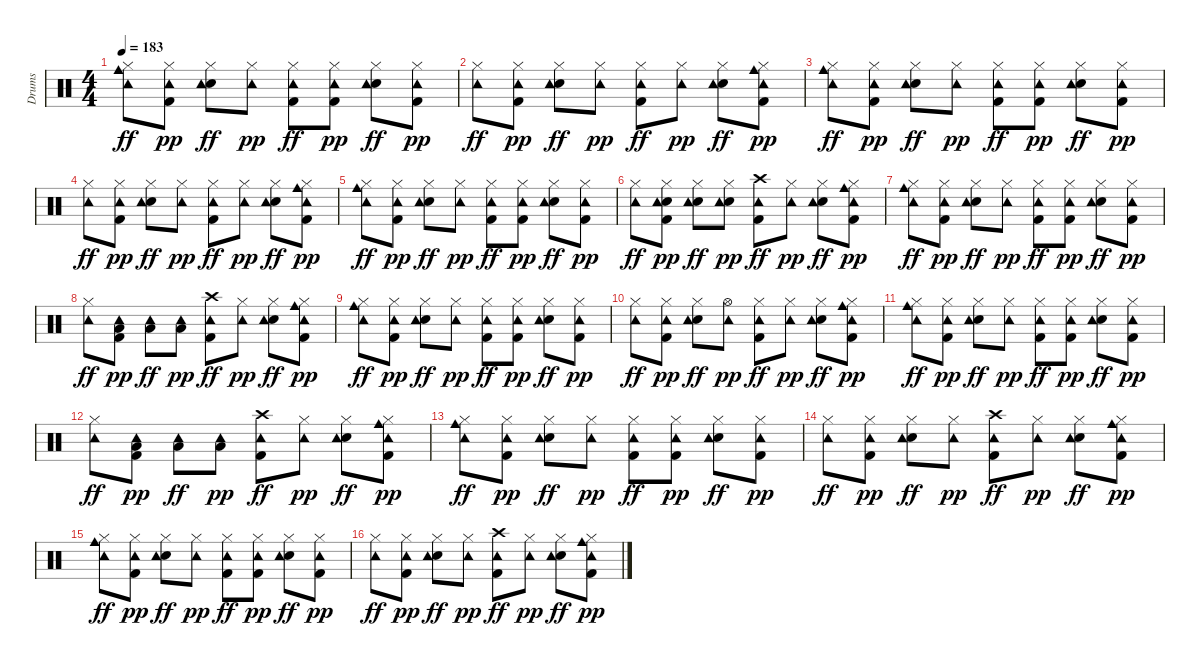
\track ("Drums" "Drums") {instrument percussion}
\staff {score}
\articulation defaults
\ts (4 4)
\tempo 183
\clef neutral
\ks c
("Cowbell medium (hit)" "Hi-Hat (closed)" "Tambourine (hit)").8{dy ff} ("Kick (hit) 2" "Hi-Hat (closed)" "Tambourine (hit)").8{dy pp} ("Snare (hit) 2" "Hi-Hat (closed)" "Tambourine (hit)").8{dy ff} ("Hi-Hat (closed)" "Tambourine (hit)").8{dy pp} ("Kick (hit) 2" "Hi-Hat (closed)" "Tambourine (hit)").8{dy ff} ("Kick (hit) 2" "Hi-Hat (closed)" "Tambourine (hit)").8{dy pp} ("Snare (hit) 2" "Hi-Hat (closed)" "Tambourine (hit)").8{dy ff} ("Kick (hit) 2" "Hi-Hat (closed)" "Tambourine (hit)").8{dy pp} |
("Hi-Hat (closed)" "Tambourine (hit)").8{dy ff} ("Kick (hit) 2" "Hi-Hat (closed)" "Tambourine (hit)").8{dy pp} ("Snare (hit) 2" "Hi-Hat (closed)" "Tambourine (hit)").8{dy ff} ("Hi-Hat (closed)" "Tambourine (hit)").8{dy pp} ("Kick (hit) 2" "Hi-Hat (closed)" "Tambourine (hit)").8{dy ff} ("Hi-Hat (closed)" "Tambourine (hit)").8{dy pp} ("Snare (hit) 2" "Hi-Hat (closed)" "Tambourine (hit)").8{dy ff} ("Cowbell medium (hit)" "Kick (hit) 2" "Hi-Hat (closed)" "Tambourine (hit)").8{dy pp} |
("Cowbell medium (hit)" "Hi-Hat (closed)" "Tambourine (hit)").8{dy ff} ("Kick (hit) 2" "Hi-Hat (closed)" "Tambourine (hit)").8{dy pp} ("Snare (hit) 2" "Hi-Hat (closed)" "Tambourine (hit)").8{dy ff} ("Hi-Hat (closed)" "Tambourine (hit)").8{dy pp} ("Kick (hit) 2" "Hi-Hat (closed)" "Tambourine (hit)").8{dy ff} ("Kick (hit) 2" "Hi-Hat (closed)" "Tambourine (hit)").8{dy pp} ("Snare (hit) 2" "Hi-Hat (closed)" "Tambourine (hit)").8{dy ff} ("Kick (hit) 2" "Hi-Hat (closed)" "Tambourine (hit)").8{dy pp} |
("Hi-Hat (closed)" "Tambourine (hit)").8{dy ff} ("Kick (hit) 2" "Hi-Hat (closed)" "Tambourine (hit)").8{dy pp} ("Snare (hit) 2" "Hi-Hat (closed)" "Tambourine (hit)").8{dy ff} ("Hi-Hat (closed)" "Tambourine (hit)").8{dy pp} ("Kick (hit) 2" "Hi-Hat (closed)" "Tambourine (hit)").8{dy ff} ("Hi-Hat (closed)" "Tambourine (hit)").8{dy pp} ("Snare (hit) 2" "Hi-Hat (closed)" "Tambourine (hit)").8{dy ff} ("Cowbell medium (hit)" "Kick (hit) 2" "Hi-Hat (closed)" "Tambourine (hit)").8{dy pp} |
("Cowbell medium (hit)" "Hi-Hat (closed)" "Tambourine (hit)").8{dy ff} ("Kick (hit) 2" "Hi-Hat (closed)" "Tambourine (hit)").8{dy pp} ("Snare (hit) 2" "Hi-Hat (closed)" "Tambourine (hit)").8{dy ff} ("Hi-Hat (closed)" "Tambourine (hit)").8{dy pp} ("Kick (hit) 2" "Hi-Hat (closed)" "Tambourine (hit)").8{dy ff} ("Kick (hit) 2" "Hi-Hat (closed)" "Tambourine (hit)").8{dy pp} ("Snare (hit) 2" "Hi-Hat (closed)" "Tambourine (hit)").8{dy ff} ("Kick (hit) 2" "Hi-Hat (closed)" "Tambourine (hit)").8{dy pp} |
("Hi-Hat (closed)" "Tambourine (hit)").8{dy ff} ("Kick (hit) 2" "Snare (hit) 2" "Hi-Hat (closed)" "Tambourine (hit)").8{dy pp} ("Snare (hit) 2" "Hi-Hat (closed)" "Tambourine (hit)").8{dy ff} ("Snare (hit) 2" "Hi-Hat (closed)" "Tambourine (hit)").8{dy pp} ("Kick (hit) 2" "Crash high (hit)" "Tambourine (hit)").8{dy ff} ("Hi-Hat (closed)" "Tambourine (hit)").8{dy pp} ("Snare (hit) 2" "Hi-Hat (closed)" "Tambourine (hit)").8{dy ff} ("Cowbell medium (hit)" "Kick (hit) 2" "Hi-Hat (closed)" "Tambourine (hit)").8{dy pp} |
("Cowbell medium (hit)" "Hi-Hat (closed)" "Tambourine (hit)").8{dy ff} ("Kick (hit) 2" "Hi-Hat (closed)" "Tambourine (hit)").8{dy pp} ("Snare (hit) 2" "Hi-Hat (closed)" "Tambourine (hit)").8{dy ff} ("Hi-Hat (closed)" "Tambourine (hit)").8{dy pp} ("Kick (hit) 2" "Hi-Hat (closed)" "Tambourine (hit)").8{dy ff} ("Kick (hit) 2" "Hi-Hat (closed)" "Tambourine (hit)").8{dy pp} ("Snare (hit) 2" "Hi-Hat (closed)" "Tambourine (hit)").8{dy ff} ("Kick (hit) 2" "Hi-Hat (closed)" "Tambourine (hit)").8{dy pp} |
("Hi-Hat (closed)" "Tambourine (hit)").8{dy ff} ("Kick (hit) 2" "Low Tom (hit)" "Tambourine (hit)").8{dy pp} ("Low Floor Tom (hit)" "Tambourine (hit)").8{dy ff} ("Low Floor Tom (hit)" "Tambourine (hit)").8{dy pp} ("Kick (hit) 2" "Crash high (hit)" "Tambourine (hit)").8{dy ff} ("Hi-Hat (closed)" "Tambourine (hit)").8{dy pp} ("Snare (hit) 2" "Hi-Hat (closed)" "Tambourine (hit)").8{dy ff} ("Cowbell medium (hit)" "Kick (hit) 2" "Hi-Hat (closed)" "Tambourine (hit)").8{dy pp} |
("Cowbell medium (hit)" "Hi-Hat (closed)" "Tambourine (hit)").8{dy ff} ("Kick (hit) 2" "Hi-Hat (closed)" "Tambourine (hit)").8{dy pp} ("Snare (hit) 2" "Hi-Hat (closed)" "Tambourine (hit)").8{dy ff} ("Hi-Hat (closed)" "Tambourine (hit)").8{dy pp} ("Kick (hit) 2" "Hi-Hat (closed)" "Tambourine (hit)").8{dy ff} ("Kick (hit) 2" "Hi-Hat (closed)" "Tambourine (hit)").8{dy pp} ("Snare (hit) 2" "Hi-Hat (closed)" "Tambourine (hit)").8{dy ff} ("Kick (hit) 2" "Hi-Hat (closed)" "Tambourine (hit)").8{dy pp} |
("Hi-Hat (closed)" "Tambourine (hit)").8{dy ff} ("Kick (hit) 2" "Hi-Hat (closed)" "Tambourine (hit)").8{dy pp} ("Snare (hit) 2" "Hi-Hat (closed)" "Tambourine (hit)").8{dy ff} ("Hi-Hat (open)" "Tambourine (hit)").8{dy pp} ("Kick (hit) 2" "Hi-Hat (closed)" "Tambourine (hit)").8{dy ff} ("Hi-Hat (closed)" "Tambourine (hit)").8{dy pp} ("Snare (hit) 2" "Hi-Hat (closed)" "Tambourine (hit)").8{dy ff} ("Cowbell medium (hit)" "Kick (hit) 2" "Hi-Hat (closed)" "Tambourine (hit)").8{dy pp} |
("Cowbell medium (hit)" "Hi-Hat (closed)" "Tambourine (hit)").8{dy ff} ("Kick (hit) 2" "Hi-Hat (closed)" "Tambourine (hit)").8{dy pp} ("Snare (hit) 2" "Hi-Hat (closed)" "Tambourine (hit)").8{dy ff} ("Hi-Hat (closed)" "Tambourine (hit)").8{dy pp} ("Kick (hit) 2" "Hi-Hat (closed)" "Tambourine (hit)").8{dy ff} ("Kick (hit) 2" "Hi-Hat (closed)" "Tambourine (hit)").8{dy pp} ("Snare (hit) 2" "Hi-Hat (closed)" "Tambourine (hit)").8{dy ff} ("Kick (hit) 2" "Hi-Hat (closed)" "Tambourine (hit)").8{dy pp} |
("Hi-Hat (closed)" "Tambourine (hit)").8{dy ff} ("Kick (hit) 2" "Low Tom (hit)" "Tambourine (hit)").8{dy pp} ("Low Tom (hit)" "Tambourine (hit)").8{dy ff} ("Low Floor Tom (hit)" "Tambourine (hit)").8{dy pp} ("Kick (hit) 2" "Crash high (hit)" "Tambourine (hit)").8{dy ff} ("Hi-Hat (closed)" "Tambourine (hit)").8{dy pp} ("Snare (hit) 2" "Hi-Hat (closed)" "Tambourine (hit)").8{dy ff} ("Cowbell medium (hit)" "Kick (hit) 2" "Hi-Hat (closed)" "Tambourine (hit)").8{dy pp} |
("Cowbell medium (hit)" "Hi-Hat (closed)" "Tambourine (hit)").8{dy ff} ("Kick (hit) 2" "Hi-Hat (closed)" "Tambourine (hit)").8{dy pp} ("Snare (hit) 2" "Hi-Hat (closed)" "Tambourine (hit)").8{dy ff} ("Hi-Hat (closed)" "Tambourine (hit)").8{dy pp} ("Kick (hit) 2" "Hi-Hat (closed)" "Tambourine (hit)").8{dy ff} ("Kick (hit) 2" "Hi-Hat (closed)" "Tambourine (hit)").8{dy pp} ("Snare (hit) 2" "Hi-Hat (closed)" "Tambourine (hit)").8{dy ff} ("Kick (hit) 2" "Hi-Hat (closed)" "Tambourine (hit)").8{dy pp} |
("Hi-Hat (closed)" "Tambourine (hit)").8{dy ff} ("Kick (hit) 2" "Hi-Hat (closed)" "Tambourine (hit)").8{dy pp} ("Snare (hit) 2" "Hi-Hat (closed)" "Tambourine (hit)").8{dy ff} ("Hi-Hat (closed)" "Tambourine (hit)").8{dy pp} ("Kick (hit) 2" "Crash high (hit)" "Tambourine (hit)").8{dy ff} ("Hi-Hat (closed)" "Tambourine (hit)").8{dy pp} ("Snare (hit) 2" "Hi-Hat (closed)" "Tambourine (hit)").8{dy ff} ("Cowbell medium (hit)" "Kick (hit) 2" "Hi-Hat (closed)" "Tambourine (hit)").8{dy pp} |
("Cowbell medium (hit)" "Hi-Hat (closed)" "Tambourine (hit)").8{dy ff} ("Kick (hit) 2" "Hi-Hat (closed)" "Tambourine (hit)").8{dy pp} ("Snare (hit) 2" "Hi-Hat (closed)" "Tambourine (hit)").8{dy ff} ("Hi-Hat (closed)" "Tambourine (hit)").8{dy pp} ("Kick (hit) 2" "Hi-Hat (closed)" "Tambourine (hit)").8{dy ff} ("Kick (hit) 2" "Hi-Hat (closed)" "Tambourine (hit)").8{dy pp} ("Snare (hit) 2" "Hi-Hat (closed)" "Tambourine (hit)").8{dy ff} ("Kick (hit) 2" "Hi-Hat (closed)" "Tambourine (hit)").8{dy pp} |
("Hi-Hat (closed)" "Tambourine (hit)").8{dy ff} ("Kick (hit) 2" "Hi-Hat (closed)" "Tambourine (hit)").8{dy pp} ("Snare (hit) 2" "Hi-Hat (closed)" "Tambourine (hit)").8{dy ff} ("Hi-Hat (closed)" "Tambourine (hit)").8{dy pp} ("Kick (hit) 2" "Crash high (hit)" "Tambourine (hit)").8{dy ff} ("Hi-Hat (closed)" "Tambourine (hit)").8{dy pp} ("Snare (hit) 2" "Hi-Hat (closed)" "Tambourine (hit)").8{dy ff} ("Cowbell medium (hit)" "Kick (hit) 2" "Hi-Hat (closed)" "Tambourine (hit)").8{dy pp}
